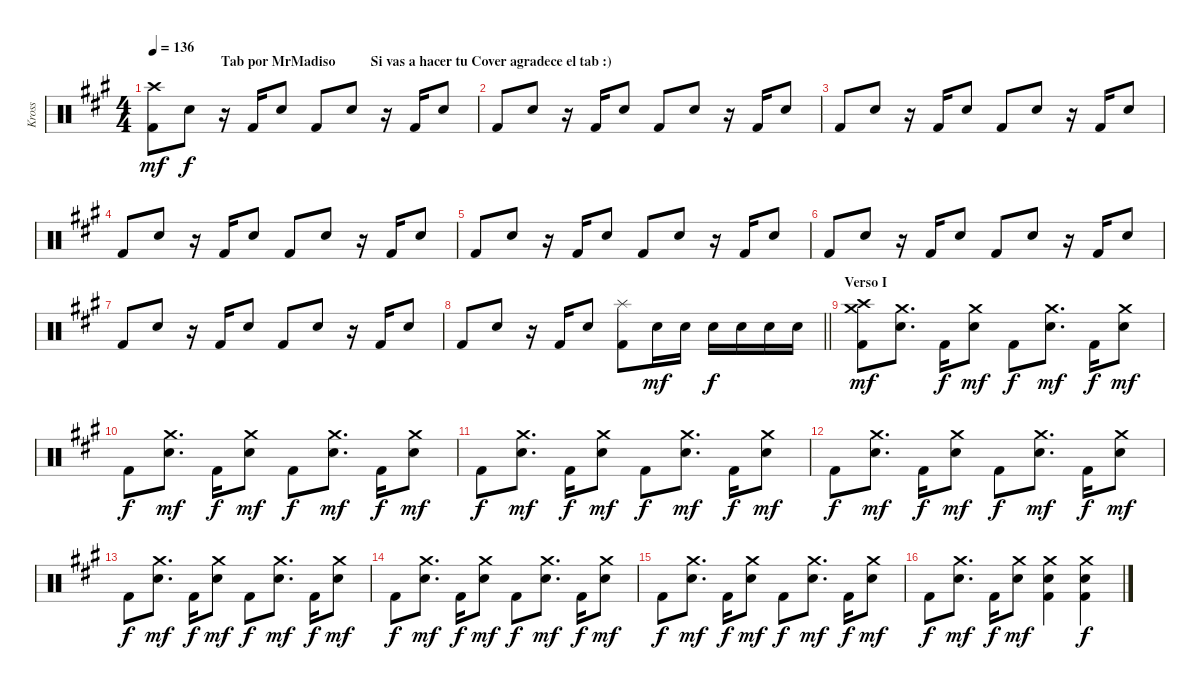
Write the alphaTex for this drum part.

\track ("Kross" "Kross") {instrument percussion}
\staff {score}
\articulation defaults
\ts (4 4)
\section ("" "                     Tab por MrMadiso          Si vas a hacer tu Cover agradece el tab :)")
\tempo 136
\clef neutral
\ks a
("Crash high (hit)" "Kick (hit) 2").8{dy mf} "Snare (hit) 2".8{dy f} r.16 "Kick (hit) 2".16 "Snare (hit) 2".8 "Kick (hit) 2".8 "Snare (hit) 2".8 r.16 "Kick (hit) 2".16 "Snare (hit) 2".8 |
"Kick (hit) 2".8 "Snare (hit) 2".8 r.16 "Kick (hit) 2".16 "Snare (hit) 2".8 "Kick (hit) 2".8 "Snare (hit) 2".8 r.16 "Kick (hit) 2".16 "Snare (hit) 2".8 |
"Kick (hit) 2".8 "Snare (hit) 2".8 r.16 "Kick (hit) 2".16 "Snare (hit) 2".8 "Kick (hit) 2".8 "Snare (hit) 2".8 r.16 "Kick (hit) 2".16 "Snare (hit) 2".8 |
"Kick (hit) 2".8 "Snare (hit) 2".8 r.16 "Kick (hit) 2".16 "Snare (hit) 2".8 "Kick (hit) 2".8 "Snare (hit) 2".8 r.16 "Kick (hit) 2".16 "Snare (hit) 2".8 |
"Kick (hit) 2".8 "Snare (hit) 2".8 r.16 "Kick (hit) 2".16 "Snare (hit) 2".8 "Kick (hit) 2".8 "Snare (hit) 2".8 r.16 "Kick (hit) 2".16 "Snare (hit) 2".8 |
"Kick (hit) 2".8 "Snare (hit) 2".8 r.16 "Kick (hit) 2".16 "Snare (hit) 2".8 "Kick (hit) 2".8 "Snare (hit) 2".8 r.16 "Kick (hit) 2".16 "Snare (hit) 2".8 |
"Kick (hit) 2".8 "Snare (hit) 2".8 r.16 "Kick (hit) 2".16 "Snare (hit) 2".8 "Kick (hit) 2".8 "Snare (hit) 2".8 r.16 "Kick (hit) 2".16 "Snare (hit) 2".8 |
\barLineRight lightlight "Kick (hit) 2".8 "Snare (hit) 2".8
r.16 "Kick (hit) 2".16 "Snare (hit) 2".8 ("Splash (hit)" "Kick (hit) 2").8 "Electric Snare (hit)".16{dy mf} "Electric Snare (hit)".16 "Electric Snare (hit)".16{dy f} "Electric Snare (hit)".16 "Electric Snare (hit)".16 "Electric Snare (hit)".16 |
\section ("" "Verso I")
("Crash medium (hit)" "Crash high (hit)" "Kick (hit) 2").8{dy mf} ("Crash medium (hit)" "Snare (hit) 2").8{d} "Kick (hit) 2".16{dy f} ("Crash medium (hit)" "Snare (hit) 2").8{dy mf} "Kick (hit) 2".8{dy f} ("Crash medium (hit)" "Snare (hit) 2").8{d dy mf} "Kick (hit) 2".16{dy f} ("Crash medium (hit)" "Snare (hit) 2").8{dy mf} |
"Kick (hit) 2".8{dy f} ("Crash medium (hit)" "Snare (hit) 2").8{d dy mf} "Kick (hit) 2".16{dy f} ("Crash medium (hit)" "Snare (hit) 2").8{dy mf} "Kick (hit) 2".8{dy f} ("Crash medium (hit)" "Snare (hit) 2").8{d dy mf} "Kick (hit) 2".16{dy f} ("Crash medium (hit)" "Snare (hit) 2").8{dy mf} |
"Kick (hit) 2".8{dy f} ("Crash medium (hit)" "Snare (hit) 2").8{d dy mf} "Kick (hit) 2".16{dy f} ("Crash medium (hit)" "Snare (hit) 2").8{dy mf} "Kick (hit) 2".8{dy f} ("Crash medium (hit)" "Snare (hit) 2").8{d dy mf} "Kick (hit) 2".16{dy f} ("Crash medium (hit)" "Snare (hit) 2").8{dy mf} |
"Kick (hit) 2".8{dy f} ("Crash medium (hit)" "Snare (hit) 2").8{d dy mf} "Kick (hit) 2".16{dy f} ("Crash medium (hit)" "Snare (hit) 2").8{dy mf} "Kick (hit) 2".8{dy f} ("Crash medium (hit)" "Snare (hit) 2").8{d dy mf} "Kick (hit) 2".16{dy f} ("Crash medium (hit)" "Snare (hit) 2").8{dy mf} |
"Kick (hit) 2".8{dy f} ("Crash medium (hit)" "Snare (hit) 2").8{d dy mf} "Kick (hit) 2".16{dy f} ("Crash medium (hit)" "Snare (hit) 2").8{dy mf} "Kick (hit) 2".8{dy f} ("Crash medium (hit)" "Snare (hit) 2").8{d dy mf} "Kick (hit) 2".16{dy f} ("Crash medium (hit)" "Snare (hit) 2").8{dy mf} |
"Kick (hit) 2".8{dy f} ("Crash medium (hit)" "Snare (hit) 2").8{d dy mf} "Kick (hit) 2".16{dy f} ("Crash medium (hit)" "Snare (hit) 2").8{dy mf} "Kick (hit) 2".8{dy f} ("Crash medium (hit)" "Snare (hit) 2").8{d dy mf} "Kick (hit) 2".16{dy f} ("Crash medium (hit)" "Snare (hit) 2").8{dy mf} |
"Kick (hit) 2".8{dy f} ("Crash medium (hit)" "Snare (hit) 2").8{d dy mf} "Kick (hit) 2".16{dy f} ("Crash medium (hit)" "Snare (hit) 2").8{dy mf} "Kick (hit) 2".8{dy f} ("Crash medium (hit)" "Snare (hit) 2").8{d dy mf} "Kick (hit) 2".16{dy f} ("Crash medium (hit)" "Snare (hit) 2").8{dy mf} |
"Kick (hit) 2".8{dy f} ("Crash medium (hit)" "Snare (hit) 2").8{d dy mf} "Kick (hit) 2".16{dy f} ("Crash medium (hit)" "Snare (hit) 2").8{dy mf} ("Crash medium (hit)" "Snare (hit) 2" "Kick (hit) 2").4 ("Crash medium (hit)" "Snare (hit) 2" "Kick (hit) 2").4{dy f}
